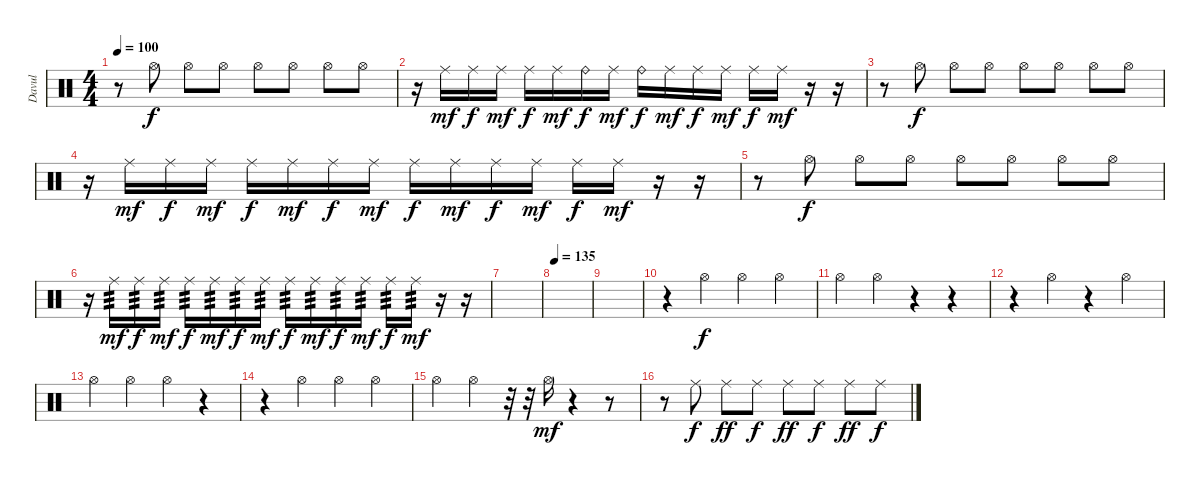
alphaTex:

\track ("Davul" "Davul") {instrument percussion}
\staff {score}
\articulation defaults
\ts (4 4)
\tempo 100
\clef neutral
\ks c
r.8{dy mf} "Hi-Hat (open)".8{dy f} "Hi-Hat (open)".8 "Hi-Hat (open)".8 "Hi-Hat (open)".8 "Hi-Hat (open)".8 "Hi-Hat (open)".8 "Hi-Hat (open)".8 |
r.16 "Ride (middle)".16{dy mf} "Ride (middle)".16{dy f} "Ride (middle)".16{dy mf} "Ride (middle)".16{dy f} "Ride (middle)".16{dy mf} "Ride (bell)".16{dy f} "Ride (middle)".16{dy mf} "Ride (bell)".16{dy f} "Ride (middle)".16{dy mf} "Ride (middle)".16{dy f} "Ride (middle)".16{dy mf} "Ride (middle)".16{dy f} "Ride (middle)".16{dy mf} r.16 r.16 |
r.8 "Hi-Hat (open)".8{dy f} "Hi-Hat (open)".8 "Hi-Hat (open)".8 "Hi-Hat (open)".8 "Hi-Hat (open)".8 "Hi-Hat (open)".8 "Hi-Hat (open)".8 |
r.16 "Ride (middle)".16{dy mf} "Ride (middle)".16{dy f} "Ride (middle)".16{dy mf} "Ride (middle)".16{dy f} "Ride (middle)".16{dy mf} "Ride (middle)".16{dy f} "Ride (middle)".16{dy mf} "Ride (middle)".16{dy f} "Ride (middle)".16{dy mf} "Ride (middle)".16{dy f} "Ride (middle)".16{dy mf} "Ride (middle)".16{dy f} "Ride (middle)".16{dy mf} r.16 r.16 |
r.8 "Hi-Hat (open)".8{dy f} "Hi-Hat (open)".8 "Hi-Hat (open)".8 "Hi-Hat (open)".8 "Hi-Hat (open)".8 "Hi-Hat (open)".8 "Hi-Hat (open)".8 |
r.16 "Ride (middle)".16{tp 3 dy mf} "Ride (middle)".16{tp 3 dy f} "Ride (middle)".16{tp 3 dy mf} "Ride (middle)".16{tp 3 dy f} "Ride (middle)".16{tp 3 dy mf} "Ride (middle)".16{tp 3 dy f} "Ride (middle)".16{tp 3 dy mf} "Ride (middle)".16{tp 3 dy f} "Ride (middle)".16{tp 3 dy mf} "Ride (middle)".16{tp 3 dy f} "Ride (middle)".16{tp 3 dy mf} "Ride (middle)".16{tp 3 dy f} "Ride (middle)".16{tp 3 dy mf} r.16 r.16 |
|
\section ("" "")
\tempo 135
|
|
r.4 "Hi-Hat (open)".4{dy f} "Hi-Hat (open)".4 "Hi-Hat (open)".4 |
"Hi-Hat (open)".4 "Hi-Hat (open)".4 r.4 r.4 |
r.4 "Hi-Hat (open)".4 r.4 "Hi-Hat (open)".4 |
"Hi-Hat (open)".4 "Hi-Hat (open)".4 "Hi-Hat (open)".4 r.4 |
r.4 "Hi-Hat (open)".4 "Hi-Hat (open)".4 "Hi-Hat (open)".4 |
"Hi-Hat (open)".4 "Hi-Hat (open)".4 r.32 r.32 "Hi-Hat (open)".16{dy mf} r.4 r.8 |
r.8 "Ride (middle)".8{dy f} "Ride (middle)".8{dy ff} "Ride (middle)".8{dy f} "Ride (middle)".8{dy ff} "Ride (middle)".8{dy f} "Ride (middle)".8{dy ff} "Ride (middle)".8{dy f}
